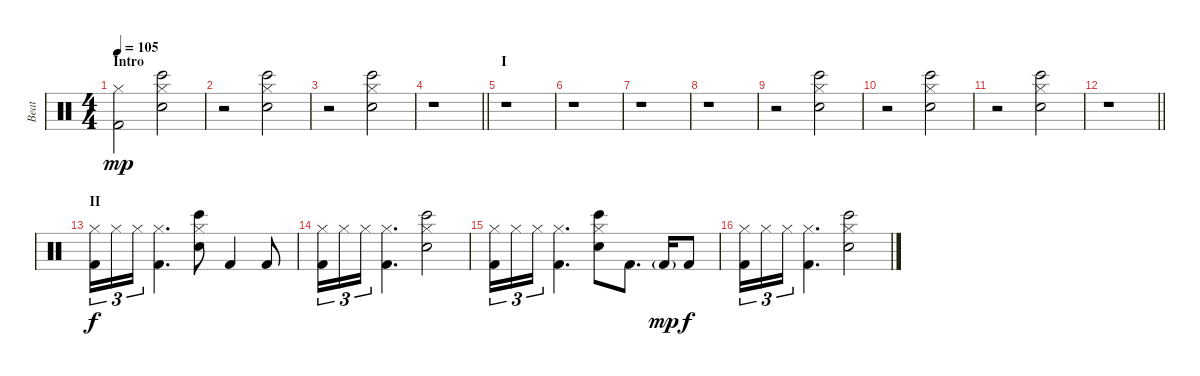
\track ("Beat" "Beat") {instrument percussion}
\staff {score}
\articulation defaults
\ts (4 4)
\section ("" "Intro")
\tempo 105
\clef neutral
\ks c
("Hi-Hat (closed)" "Kick (hit) 2").2{dy mp} ("Hi-Hat (closed)" "Bongo High (hit)" "Snare (hit) 2").2 |
r.2 ("Hi-Hat (closed)" "Bongo High (hit)" "Snare (hit) 2").2 |
r.2 ("Hi-Hat (closed)" "Bongo High (hit)" "Snare (hit) 2").2 |
\barLineRight lightlight
r.1 |
\section ("" "I")
r.1 |
r.1 |
r.1 |
r.1 |
r.2 ("Hi-Hat (closed)" "Bongo High (hit)" "Snare (hit) 2").2 |
r.2 ("Hi-Hat (closed)" "Bongo High (hit)" "Snare (hit) 2").2 |
r.2 ("Hi-Hat (closed)" "Bongo High (hit)" "Snare (hit) 2").2 |
\barLineRight lightlight
r.1 |
\section ("" "II")
("Hi-Hat (closed)" "Kick (hit) 2").16{tu (3 2) dy f} "Hi-Hat (closed)".16{tu (3 2)} "Hi-Hat (closed)".16{tu (3 2)} ("Hi-Hat (closed)" "Kick (hit) 2").4{d} ("Hi-Hat (closed)" "Snare (hit) 2" "Bongo High (hit)").8 "Kick (hit) 2".4 "Kick (hit) 2".8 |
("Hi-Hat (closed)" "Kick (hit) 2").16{tu (3 2)} "Hi-Hat (closed)".16{tu (3 2)} "Hi-Hat (closed)".16{tu (3 2)} ("Hi-Hat (closed)" "Kick (hit) 2").4{d} ("Hi-Hat (closed)" "Snare (hit) 2" "Bongo High (hit)").2 |
("Hi-Hat (closed)" "Kick (hit) 2").16{tu (3 2)} "Hi-Hat (closed)".16{tu (3 2)} "Hi-Hat (closed)".16{tu (3 2)} ("Hi-Hat (closed)" "Kick (hit) 2").4{d} ("Hi-Hat (closed)" "Snare (hit) 2" "Bongo High (hit)").8 "Kick (hit) 2".8{d} "Kick (hit) 2"{g}.16{dy mp} "Kick (hit) 2".8{dy f} |
("Hi-Hat (closed)" "Kick (hit) 2").16{tu (3 2)} "Hi-Hat (closed)".16{tu (3 2)} "Hi-Hat (closed)".16{tu (3 2)} ("Hi-Hat (closed)" "Kick (hit) 2").4{d} ("Hi-Hat (closed)" "Snare (hit) 2" "Bongo High (hit)").2
